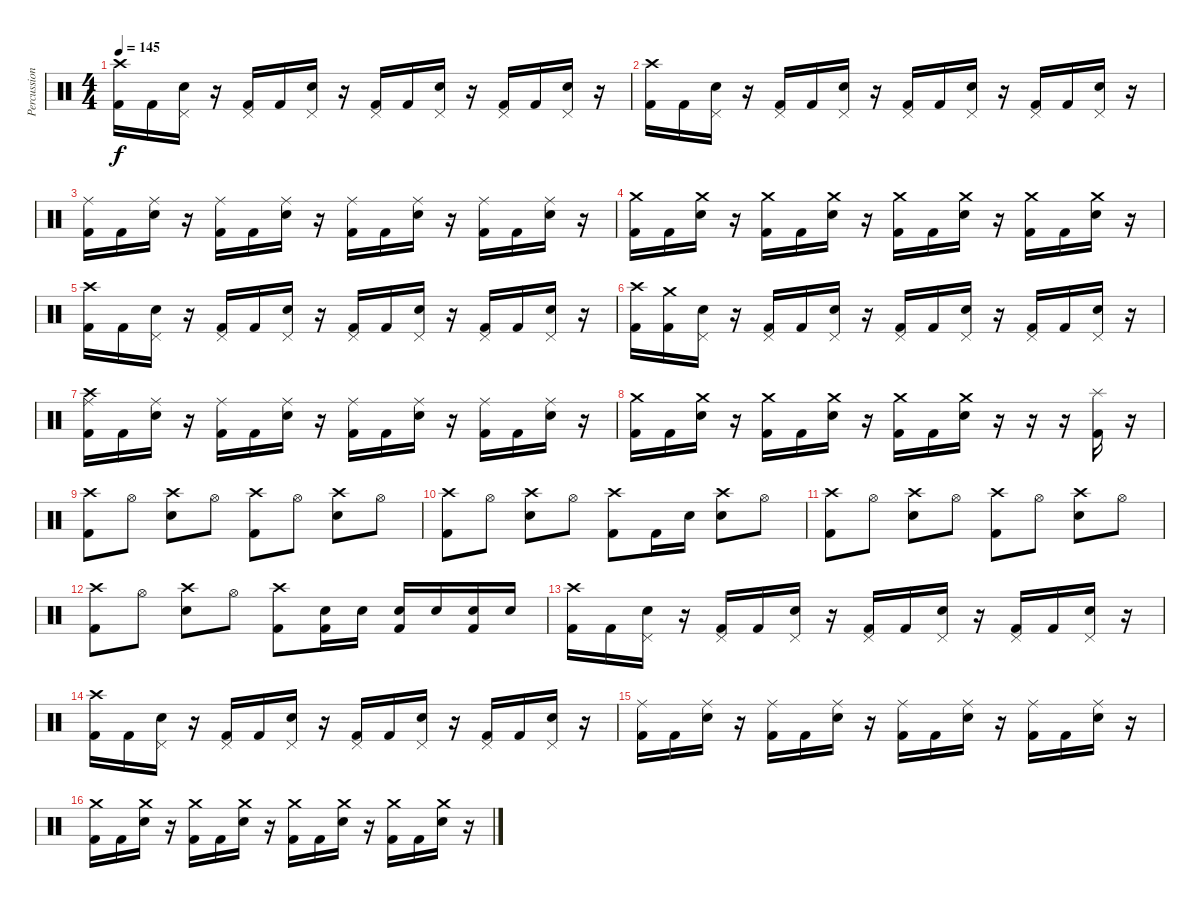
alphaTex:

\track ("Percussion" "Percussion") {instrument percussion}
\staff {score}
\articulation defaults
\ts (4 4)
\tempo 145
\clef neutral
\ks c
("Crash high (hit)" "Kick (hit) 2").16{dy f} "Kick (hit) 2".16 ("Pedal Hi-Hat (hit)" "Electric Snare (hit)").16 r.16 ("Pedal Hi-Hat (hit)" "Kick (hit) 2").16 "Kick (hit) 2".16 ("Pedal Hi-Hat (hit)" "Electric Snare (hit)").16 r.16 ("Pedal Hi-Hat (hit)" "Kick (hit) 2").16 "Kick (hit) 2".16 ("Pedal Hi-Hat (hit)" "Electric Snare (hit)").16 r.16 ("Pedal Hi-Hat (hit)" "Kick (hit) 2").16 "Kick (hit) 2".16 ("Pedal Hi-Hat (hit)" "Electric Snare (hit)").16 r.16 |
("Crash high (hit)" "Kick (hit) 2").16 "Kick (hit) 2".16 ("Pedal Hi-Hat (hit)" "Electric Snare (hit)").16 r.16 ("Pedal Hi-Hat (hit)" "Kick (hit) 2").16 "Kick (hit) 2".16 ("Pedal Hi-Hat (hit)" "Electric Snare (hit)").16 r.16 ("Pedal Hi-Hat (hit)" "Kick (hit) 2").16 "Kick (hit) 2".16 ("Pedal Hi-Hat (hit)" "Electric Snare (hit)").16 r.16 ("Pedal Hi-Hat (hit)" "Kick (hit) 2").16 "Kick (hit) 2".16 ("Pedal Hi-Hat (hit)" "Electric Snare (hit)").16 r.16 |
("Ride (middle)" "Kick (hit) 2").16 "Kick (hit) 2".16 ("Ride (middle)" "Electric Snare (hit)").16 r.16 ("Ride (middle)" "Kick (hit) 2").16 "Kick (hit) 2".16 ("Ride (middle)" "Electric Snare (hit)").16 r.16 ("Ride (middle)" "Kick (hit) 2").16 "Kick (hit) 2".16 ("Ride (middle)" "Electric Snare (hit)").16 r.16 ("Ride (middle)" "Kick (hit) 2").16 "Kick (hit) 2".16 ("Ride (middle)" "Electric Snare (hit)").16 r.16 |
("Crash medium (hit)" "Kick (hit) 2").16 "Kick (hit) 2".16 ("Crash medium (hit)" "Electric Snare (hit)").16 r.16 ("Crash medium (hit)" "Kick (hit) 2").16 "Kick (hit) 2".16 ("Crash medium (hit)" "Electric Snare (hit)").16 r.16 ("Crash medium (hit)" "Kick (hit) 2").16 "Kick (hit) 2".16 ("Crash medium (hit)" "Electric Snare (hit)").16 r.16 ("Crash medium (hit)" "Kick (hit) 2").16 "Kick (hit) 2".16 ("Crash medium (hit)" "Electric Snare (hit)").16 r.16 |
("Crash high (hit)" "Kick (hit) 2").16 "Kick (hit) 2".16 ("Pedal Hi-Hat (hit)" "Electric Snare (hit)").16 r.16 ("Pedal Hi-Hat (hit)" "Kick (hit) 2").16 "Kick (hit) 2".16 ("Pedal Hi-Hat (hit)" "Electric Snare (hit)").16 r.16 ("Pedal Hi-Hat (hit)" "Kick (hit) 2").16 "Kick (hit) 2".16 ("Pedal Hi-Hat (hit)" "Electric Snare (hit)").16 r.16 ("Pedal Hi-Hat (hit)" "Kick (hit) 2").16 "Kick (hit) 2".16 ("Pedal Hi-Hat (hit)" "Electric Snare (hit)").16 r.16 |
("Crash high (hit)" "Kick (hit) 2").16 ("Crash medium (hit)" "Kick (hit) 2").16 ("Pedal Hi-Hat (hit)" "Electric Snare (hit)").16 r.16 ("Pedal Hi-Hat (hit)" "Kick (hit) 2").16 "Kick (hit) 2".16 ("Pedal Hi-Hat (hit)" "Electric Snare (hit)").16 r.16 ("Pedal Hi-Hat (hit)" "Kick (hit) 2").16 "Kick (hit) 2".16 ("Pedal Hi-Hat (hit)" "Electric Snare (hit)").16 r.16 ("Pedal Hi-Hat (hit)" "Kick (hit) 2").16 "Kick (hit) 2".16 ("Pedal Hi-Hat (hit)" "Electric Snare (hit)").16 r.16 |
("Crash high (hit)" "Ride (middle)" "Kick (hit) 2").16 "Kick (hit) 2".16 ("Ride (middle)" "Electric Snare (hit)").16 r.16 ("Ride (middle)" "Kick (hit) 2").16 "Kick (hit) 2".16 ("Ride (middle)" "Electric Snare (hit)").16 r.16 ("Ride (middle)" "Kick (hit) 2").16 "Kick (hit) 2".16 ("Ride (middle)" "Electric Snare (hit)").16 r.16 ("Ride (middle)" "Kick (hit) 2").16 "Kick (hit) 2".16 ("Ride (middle)" "Electric Snare (hit)").16 r.16 |
("Crash medium (hit)" "Kick (hit) 2").16 "Kick (hit) 2".16 ("Crash medium (hit)" "Electric Snare (hit)").16 r.16 ("Crash medium (hit)" "Kick (hit) 2").16 "Kick (hit) 2".16 ("Crash medium (hit)" "Electric Snare (hit)").16 r.16 ("Crash medium (hit)" "Kick (hit) 2").16 "Kick (hit) 2".16 ("Crash medium (hit)" "Electric Snare (hit)").16 r.16 r.16 r.16 ("Splash (hit)" "Kick (hit) 2").16 r.16 |
("Crash high (hit)" "Kick (hit) 2").8 "Hi-Hat (open)".8 ("Crash high (hit)" "Electric Snare (hit)").8 "Hi-Hat (open)".8 ("Crash high (hit)" "Kick (hit) 2").8 "Hi-Hat (open)".8 ("Crash high (hit)" "Electric Snare (hit)").8 "Hi-Hat (open)".8 |
("Crash high (hit)" "Kick (hit) 2").8 "Hi-Hat (open)".8 ("Crash high (hit)" "Electric Snare (hit)").8 "Hi-Hat (open)".8 ("Crash high (hit)" "Kick (hit) 2").8 "Kick (hit) 2".16 "Electric Snare (hit)".16 ("Crash high (hit)" "Electric Snare (hit)").8 "Hi-Hat (open)".8 |
("Crash high (hit)" "Kick (hit) 2").8 "Hi-Hat (open)".8 ("Crash high (hit)" "Electric Snare (hit)").8 "Hi-Hat (open)".8 ("Crash high (hit)" "Kick (hit) 2").8 "Hi-Hat (open)".8 ("Crash high (hit)" "Electric Snare (hit)").8 "Hi-Hat (open)".8 |
("Crash high (hit)" "Kick (hit) 2").8 "Hi-Hat (open)".8 ("Crash high (hit)" "Electric Snare (hit)").8 "Hi-Hat (open)".8 ("Crash high (hit)" "Kick (hit) 2").8 ("Electric Snare (hit)" "Kick (hit) 2").16 "Electric Snare (hit)".16 ("Electric Snare (hit)" "Kick (hit) 2").16 "Electric Snare (hit)".16 ("Electric Snare (hit)" "Kick (hit) 2").16 "Electric Snare (hit)".16 |
("Crash high (hit)" "Kick (hit) 2").16 "Kick (hit) 2".16 ("Pedal Hi-Hat (hit)" "Electric Snare (hit)").16 r.16 ("Pedal Hi-Hat (hit)" "Kick (hit) 2").16 "Kick (hit) 2".16 ("Pedal Hi-Hat (hit)" "Electric Snare (hit)").16 r.16 ("Pedal Hi-Hat (hit)" "Kick (hit) 2").16 "Kick (hit) 2".16 ("Pedal Hi-Hat (hit)" "Electric Snare (hit)").16 r.16 ("Pedal Hi-Hat (hit)" "Kick (hit) 2").16 "Kick (hit) 2".16 ("Pedal Hi-Hat (hit)" "Electric Snare (hit)").16 r.16 |
("Crash high (hit)" "Kick (hit) 2").16 "Kick (hit) 2".16 ("Pedal Hi-Hat (hit)" "Electric Snare (hit)").16 r.16 ("Pedal Hi-Hat (hit)" "Kick (hit) 2").16 "Kick (hit) 2".16 ("Pedal Hi-Hat (hit)" "Electric Snare (hit)").16 r.16 ("Pedal Hi-Hat (hit)" "Kick (hit) 2").16 "Kick (hit) 2".16 ("Pedal Hi-Hat (hit)" "Electric Snare (hit)").16 r.16 ("Pedal Hi-Hat (hit)" "Kick (hit) 2").16 "Kick (hit) 2".16 ("Pedal Hi-Hat (hit)" "Electric Snare (hit)").16 r.16 |
("Ride (middle)" "Kick (hit) 2").16 "Kick (hit) 2".16 ("Ride (middle)" "Electric Snare (hit)").16 r.16 ("Ride (middle)" "Kick (hit) 2").16 "Kick (hit) 2".16 ("Ride (middle)" "Electric Snare (hit)").16 r.16 ("Ride (middle)" "Kick (hit) 2").16 "Kick (hit) 2".16 ("Ride (middle)" "Electric Snare (hit)").16 r.16 ("Ride (middle)" "Kick (hit) 2").16 "Kick (hit) 2".16 ("Ride (middle)" "Electric Snare (hit)").16 r.16 |
("Crash medium (hit)" "Kick (hit) 2").16 "Kick (hit) 2".16 ("Crash medium (hit)" "Electric Snare (hit)").16 r.16 ("Crash medium (hit)" "Kick (hit) 2").16 "Kick (hit) 2".16 ("Crash medium (hit)" "Electric Snare (hit)").16 r.16 ("Crash medium (hit)" "Kick (hit) 2").16 "Kick (hit) 2".16 ("Crash medium (hit)" "Electric Snare (hit)").16 r.16 ("Crash medium (hit)" "Kick (hit) 2").16 "Kick (hit) 2".16 ("Crash medium (hit)" "Electric Snare (hit)").16 r.16
